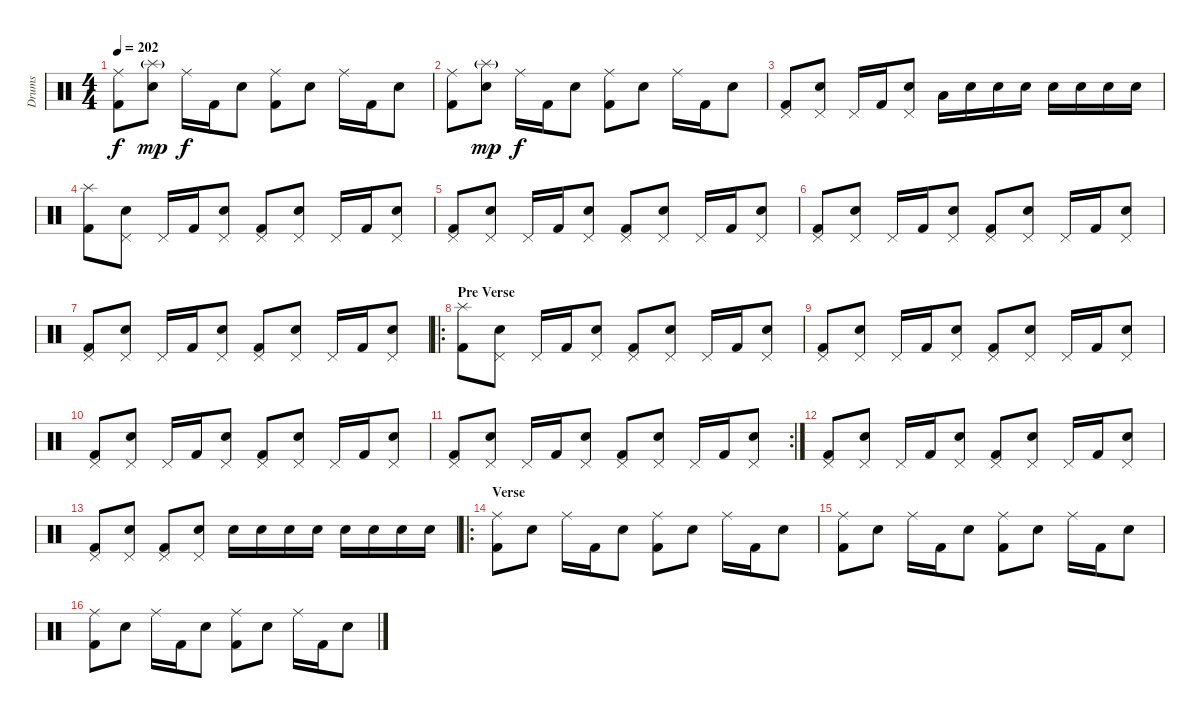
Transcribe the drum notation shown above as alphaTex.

\track ("Drums" "Drums") {instrument percussion}
\staff {score}
\articulation defaults
\ts (4 4)
\tempo 202
\clef neutral
\ks c
("Ride (middle)" "Kick (hit) 2").8{dy f} ("Splash (hit)"{g} "Electric Snare (hit)").8{dy mp} "Ride (middle)".16{dy f} "Kick (hit) 2".16 "Electric Snare (hit)".8 ("Ride (middle)" "Kick (hit) 2").8 "Electric Snare (hit)".8 "Ride (middle)".16 "Kick (hit) 2".16 "Electric Snare (hit)".8 |
("Ride (middle)" "Kick (hit) 2").8 ("Splash (hit)"{g} "Electric Snare (hit)").8{dy mp} "Ride (middle)".16{dy f} "Kick (hit) 2".16 "Electric Snare (hit)".8 ("Ride (middle)" "Kick (hit) 2").8 "Electric Snare (hit)".8 "Ride (middle)".16 "Kick (hit) 2".16 "Electric Snare (hit)".8 |
("Pedal Hi-Hat (hit)" "Kick (hit) 2").8 ("Pedal Hi-Hat (hit)" "Electric Snare (hit)").8 "Pedal Hi-Hat (hit)".16 "Kick (hit) 2".16 ("Pedal Hi-Hat (hit)" "Electric Snare (hit)").8 "Low Tom (hit)".16 "Electric Snare (hit)".16 "Electric Snare (hit)".16 "Electric Snare (hit)".16 "Electric Snare (hit)".16 "Electric Snare (hit)".16 "Electric Snare (hit)".16 "Electric Snare (hit)".16 |
("Splash (hit)" "Kick (hit) 2").8 ("Pedal Hi-Hat (hit)" "Electric Snare (hit)").8 "Pedal Hi-Hat (hit)".16 "Kick (hit) 2".16 ("Pedal Hi-Hat (hit)" "Electric Snare (hit)").8 ("Pedal Hi-Hat (hit)" "Kick (hit) 2").8 ("Pedal Hi-Hat (hit)" "Electric Snare (hit)").8 "Pedal Hi-Hat (hit)".16 "Kick (hit) 2".16 ("Pedal Hi-Hat (hit)" "Electric Snare (hit)").8 |
("Pedal Hi-Hat (hit)" "Kick (hit) 2").8 ("Pedal Hi-Hat (hit)" "Electric Snare (hit)").8 "Pedal Hi-Hat (hit)".16 "Kick (hit) 2".16 ("Pedal Hi-Hat (hit)" "Electric Snare (hit)").8 ("Pedal Hi-Hat (hit)" "Kick (hit) 2").8 ("Pedal Hi-Hat (hit)" "Electric Snare (hit)").8 "Pedal Hi-Hat (hit)".16 "Kick (hit) 2".16 ("Pedal Hi-Hat (hit)" "Electric Snare (hit)").8 |
("Pedal Hi-Hat (hit)" "Kick (hit) 2").8 ("Pedal Hi-Hat (hit)" "Electric Snare (hit)").8 "Pedal Hi-Hat (hit)".16 "Kick (hit) 2".16 ("Pedal Hi-Hat (hit)" "Electric Snare (hit)").8 ("Pedal Hi-Hat (hit)" "Kick (hit) 2").8 ("Pedal Hi-Hat (hit)" "Electric Snare (hit)").8 "Pedal Hi-Hat (hit)".16 "Kick (hit) 2".16 ("Pedal Hi-Hat (hit)" "Electric Snare (hit)").8 |
("Pedal Hi-Hat (hit)" "Kick (hit) 2").8 ("Pedal Hi-Hat (hit)" "Electric Snare (hit)").8 "Pedal Hi-Hat (hit)".16 "Kick (hit) 2".16 ("Pedal Hi-Hat (hit)" "Electric Snare (hit)").8 ("Pedal Hi-Hat (hit)" "Kick (hit) 2").8 ("Pedal Hi-Hat (hit)" "Electric Snare (hit)").8 "Pedal Hi-Hat (hit)".16 "Kick (hit) 2".16 ("Pedal Hi-Hat (hit)" "Electric Snare (hit)").8 |
\ro
\section ("" "Pre Verse")
("Splash (hit)" "Kick (hit) 2").8 ("Pedal Hi-Hat (hit)" "Electric Snare (hit)").8 "Pedal Hi-Hat (hit)".16 "Kick (hit) 2".16 ("Pedal Hi-Hat (hit)" "Electric Snare (hit)").8 ("Pedal Hi-Hat (hit)" "Kick (hit) 2").8 ("Pedal Hi-Hat (hit)" "Electric Snare (hit)").8 "Pedal Hi-Hat (hit)".16 "Kick (hit) 2".16 ("Pedal Hi-Hat (hit)" "Electric Snare (hit)").8 |
("Pedal Hi-Hat (hit)" "Kick (hit) 2").8 ("Pedal Hi-Hat (hit)" "Electric Snare (hit)").8 "Pedal Hi-Hat (hit)".16 "Kick (hit) 2".16 ("Pedal Hi-Hat (hit)" "Electric Snare (hit)").8 ("Pedal Hi-Hat (hit)" "Kick (hit) 2").8 ("Pedal Hi-Hat (hit)" "Electric Snare (hit)").8 "Pedal Hi-Hat (hit)".16 "Kick (hit) 2".16 ("Pedal Hi-Hat (hit)" "Electric Snare (hit)").8 |
("Pedal Hi-Hat (hit)" "Kick (hit) 2").8 ("Pedal Hi-Hat (hit)" "Electric Snare (hit)").8 "Pedal Hi-Hat (hit)".16 "Kick (hit) 2".16 ("Pedal Hi-Hat (hit)" "Electric Snare (hit)").8 ("Pedal Hi-Hat (hit)" "Kick (hit) 2").8 ("Pedal Hi-Hat (hit)" "Electric Snare (hit)").8 "Pedal Hi-Hat (hit)".16 "Kick (hit) 2".16 ("Pedal Hi-Hat (hit)" "Electric Snare (hit)").8 |
\rc 2
("Pedal Hi-Hat (hit)" "Kick (hit) 2").8 ("Pedal Hi-Hat (hit)" "Electric Snare (hit)").8 "Pedal Hi-Hat (hit)".16 "Kick (hit) 2".16 ("Pedal Hi-Hat (hit)" "Electric Snare (hit)").8 ("Pedal Hi-Hat (hit)" "Kick (hit) 2").8 ("Pedal Hi-Hat (hit)" "Electric Snare (hit)").8 "Pedal Hi-Hat (hit)".16 "Kick (hit) 2".16 ("Pedal Hi-Hat (hit)" "Electric Snare (hit)").8 |
("Pedal Hi-Hat (hit)" "Kick (hit) 2").8 ("Pedal Hi-Hat (hit)" "Electric Snare (hit)").8 "Pedal Hi-Hat (hit)".16 "Kick (hit) 2".16 ("Pedal Hi-Hat (hit)" "Electric Snare (hit)").8 ("Pedal Hi-Hat (hit)" "Kick (hit) 2").8 ("Pedal Hi-Hat (hit)" "Electric Snare (hit)").8 "Pedal Hi-Hat (hit)".16 "Kick (hit) 2".16 ("Pedal Hi-Hat (hit)" "Electric Snare (hit)").8 |
("Pedal Hi-Hat (hit)" "Kick (hit) 2").8 ("Pedal Hi-Hat (hit)" "Electric Snare (hit)").8 ("Pedal Hi-Hat (hit)" "Kick (hit) 2").8 ("Pedal Hi-Hat (hit)" "Electric Snare (hit)").8 "Electric Snare (hit)".16 "Electric Snare (hit)".16 "Electric Snare (hit)".16 "Electric Snare (hit)".16 "Electric Snare (hit)".16 "Electric Snare (hit)".16 "Electric Snare (hit)".16 "Electric Snare (hit)".16 |
\ro
\section ("" "Verse")
("Ride (middle)" "Kick (hit) 2").8 "Electric Snare (hit)".8 "Ride (middle)".16 "Kick (hit) 2".16 "Electric Snare (hit)".8 ("Ride (middle)" "Kick (hit) 2").8 "Electric Snare (hit)".8 "Ride (middle)".16 "Kick (hit) 2".16 "Electric Snare (hit)".8 |
("Ride (middle)" "Kick (hit) 2").8 "Electric Snare (hit)".8 "Ride (middle)".16 "Kick (hit) 2".16 "Electric Snare (hit)".8 ("Ride (middle)" "Kick (hit) 2").8 "Electric Snare (hit)".8 "Ride (middle)".16 "Kick (hit) 2".16 "Electric Snare (hit)".8 |
("Ride (middle)" "Kick (hit) 2").8 "Electric Snare (hit)".8 "Ride (middle)".16 "Kick (hit) 2".16 "Electric Snare (hit)".8 ("Ride (middle)" "Kick (hit) 2").8 "Electric Snare (hit)".8 "Ride (middle)".16 "Kick (hit) 2".16 "Electric Snare (hit)".8
